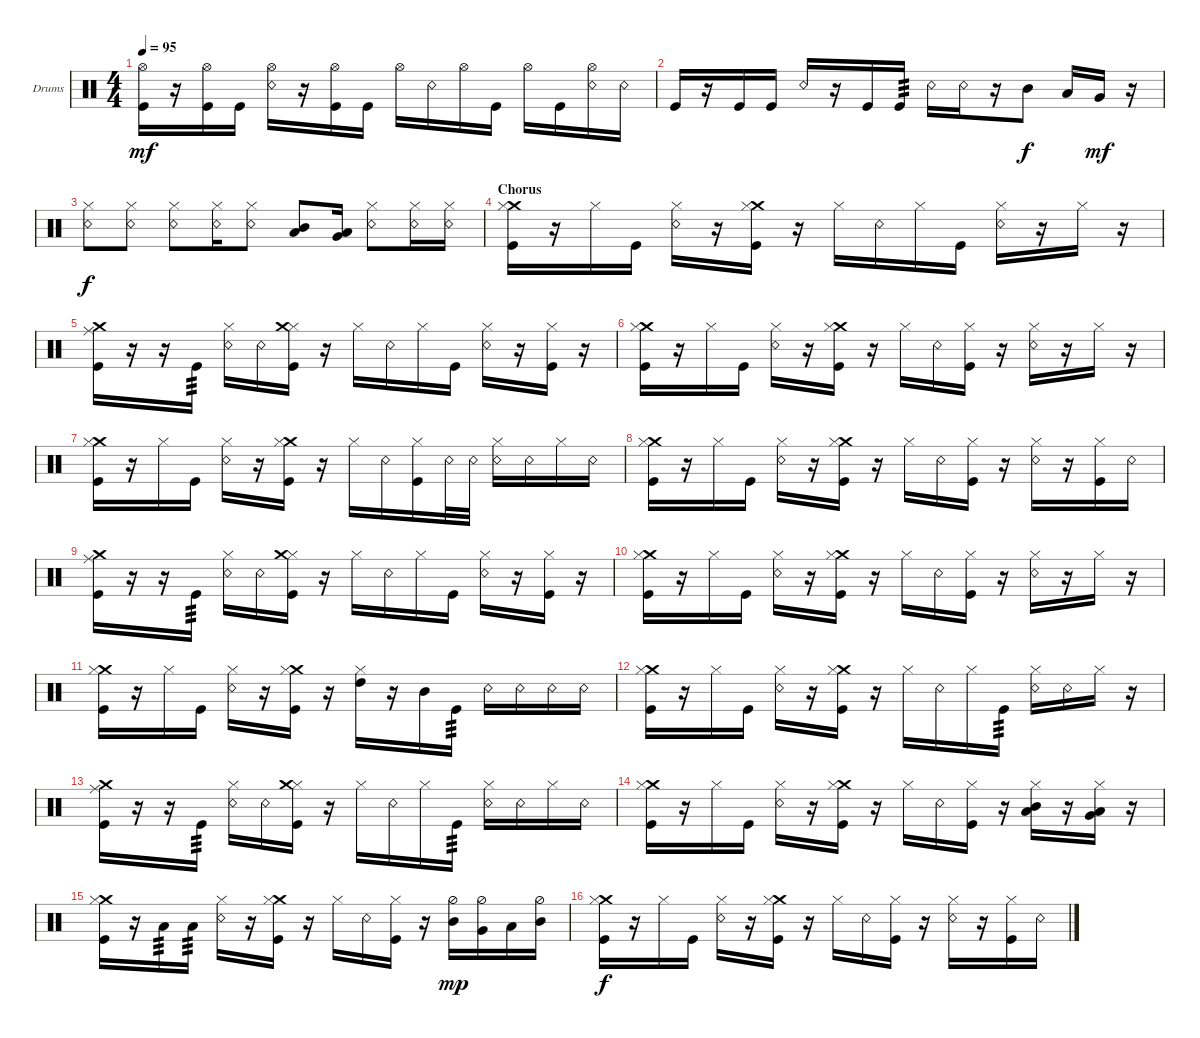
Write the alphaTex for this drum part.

\defaultSystemsLayout 4
\bracketExtendMode groupsimilarinstruments
\firstSystemTrackNameOrientation horizontal
\otherSystemsTrackNameOrientation horizontal
\track ("Drum [Tomoya]" "Drums") {instrument percussion}
\staff {score}
\articulation defaults
\ts (4 4)
\tempo 95
\clef neutral
\ks c
("Kick (hit)" "Hi-Hat (open)").16{dy mf} r.16 ("Kick (hit)" "Hi-Hat (open)").16 "Kick (hit)".16 ("Snare (rim shot)" "Hi-Hat (open)").16 r.16 ("Kick (hit)" "Hi-Hat (open)").16 "Kick (hit)".16 "Hi-Hat (open)".16 "Snare (rim shot)".16 "Hi-Hat (open)".16 "Kick (hit)".16 "Hi-Hat (open)".16 "Kick (hit)".16 ("Snare (rim shot)" "Hi-Hat (open)").16 "Snare (rim shot)".16 |
"Kick (hit)".16 r.16 "Kick (hit)".16 "Kick (hit)".16 "Snare (rim shot)".16 r.16 "Kick (hit)".16 "Kick (hit)".16{tp 3} "Snare (rim shot)".16 "Snare (rim shot)".16 r.16 "Mid Tom (hit)".8{dy f} "Low Tom (hit)".16 "Very Low Tom (hit)".16{dy mf} r.16 |
("Snare (rim shot)" "Hi-Hat (closed)").8{dy f} ("Snare (rim shot)" "Hi-Hat (closed)").8 ("Snare (rim shot)" "Hi-Hat (closed)").8 ("Snare (rim shot)" "Hi-Hat (closed)").16 ("Snare (rim shot)" "Hi-Hat (closed)").8 ("Mid Tom (hit)" "Low Tom (hit)").8 ("Very Low Tom (hit)" "Low Tom (hit)").16 ("Snare (rim shot)" "Hi-Hat (closed)").8 ("Snare (rim shot)" "Hi-Hat (closed)").16 ("Snare (rim shot)" "Hi-Hat (closed)").16 |
\section ("" "Chorus")
("Kick (hit)" "Crash medium (hit)" "Hi-Hat (closed)").16 r.16 "Hi-Hat (closed)".16 "Kick (hit)".16 ("Snare (rim shot)" "Hi-Hat (closed)").16 r.16 ("Kick (hit)" "Crash medium (hit)" "Hi-Hat (closed)").16 r.16 "Hi-Hat (closed)".16 "Snare (rim shot)".16 "Hi-Hat (closed)".16 "Kick (hit)".16 ("Snare (rim shot)" "Hi-Hat (closed)").16 r.16 "Hi-Hat (closed)".16 r.16 |
("Kick (hit)" "Crash medium (hit)" "Ride (middle)").16 r.16 r.16 "Kick (hit)".16{tp 3} ("Snare (rim shot)" "Hi-Hat (closed)").16 "Snare (rim shot)".16 ("Kick (hit)" "Hi-Hat (closed)" "Crash medium (hit)").16 r.16 "Hi-Hat (closed)".16 "Snare (rim shot)".16 "Hi-Hat (closed)".16 "Kick (hit)".16 ("Snare (rim shot)" "Hi-Hat (closed)").16 r.16 ("Kick (hit)" "Hi-Hat (closed)").16 r.16 |
("Kick (hit)" "Crash medium (hit)" "Hi-Hat (closed)").16 r.16 "Hi-Hat (closed)".16 "Kick (hit)".16 ("Snare (rim shot)" "Hi-Hat (closed)").16 r.16 ("Kick (hit)" "Crash medium (hit)" "Hi-Hat (closed)").16 r.16 "Hi-Hat (closed)".16 "Snare (rim shot)".16 ("Hi-Hat (closed)" "Kick (hit)").16 r.16 ("Snare (rim shot)" "Hi-Hat (closed)").16 r.16 "Hi-Hat (closed)".16 r.16 |
("Kick (hit)" "Crash medium (hit)" "Hi-Hat (closed)").16 r.16 "Hi-Hat (closed)".16 "Kick (hit)".16 ("Snare (rim shot)" "Hi-Hat (closed)").16 r.16 ("Kick (hit)" "Crash medium (hit)" "Hi-Hat (closed)").16 r.16 "Hi-Hat (closed)".16 "Snare (rim shot)".16 ("Hi-Hat (closed)" "Kick (hit)").16 "Snare (rim shot)".32 "Snare (rim shot)".32 ("Snare (rim shot)" "Hi-Hat (closed)").16 "Snare (rim shot)".16 "Hi-Hat (closed)".16 "Snare (rim shot)".16 |
("Kick (hit)" "Crash medium (hit)" "Hi-Hat (closed)").16 r.16 "Hi-Hat (closed)".16 "Kick (hit)".16 ("Snare (rim shot)" "Hi-Hat (closed)").16 r.16 ("Kick (hit)" "Crash medium (hit)" "Hi-Hat (closed)").16 r.16 "Hi-Hat (closed)".16 "Snare (rim shot)".16 ("Hi-Hat (closed)" "Kick (hit)").16 r.16 ("Snare (rim shot)" "Hi-Hat (closed)").16 r.16 ("Hi-Hat (closed)" "Kick (hit)").16 "Snare (rim shot)".16 |
("Kick (hit)" "Crash medium (hit)" "Ride (middle)").16 r.16 r.16 "Kick (hit)".16{tp 3} ("Snare (rim shot)" "Hi-Hat (closed)").16 "Snare (rim shot)".16 ("Kick (hit)" "Hi-Hat (closed)" "Crash medium (hit)").16 r.16 "Hi-Hat (closed)".16 "Snare (rim shot)".16 "Hi-Hat (closed)".16 "Kick (hit)".16 ("Snare (rim shot)" "Hi-Hat (closed)").16 r.16 ("Kick (hit)" "Hi-Hat (closed)").16 r.16 |
("Kick (hit)" "Crash medium (hit)" "Hi-Hat (closed)").16 r.16 "Hi-Hat (closed)".16 "Kick (hit)".16 ("Snare (rim shot)" "Hi-Hat (closed)").16 r.16 ("Kick (hit)" "Crash medium (hit)" "Hi-Hat (closed)").16 r.16 "Hi-Hat (closed)".16 "Snare (rim shot)".16 ("Hi-Hat (closed)" "Kick (hit)").16 r.16 ("Snare (rim shot)" "Hi-Hat (closed)").16 r.16 "Hi-Hat (closed)".16 r.16 |
("Kick (hit)" "Crash medium (hit)" "Hi-Hat (closed)").16 r.16 "Hi-Hat (closed)".16 "Kick (hit)".16 ("Snare (rim shot)" "Hi-Hat (closed)").16 r.16 ("Kick (hit)" "Crash medium (hit)" "Hi-Hat (closed)").16 r.16 ("Hi-Hat (closed)" "High Tom (hit)").16 r.16 "Mid Tom (hit)".16 "Kick (hit)".16{tp 3} "Snare (rim shot)".16 "Snare (rim shot)".16 "Snare (rim shot)".16 "Snare (rim shot)".16 |
("Kick (hit)" "Crash medium (hit)" "Hi-Hat (closed)").16 r.16 "Hi-Hat (closed)".16 "Kick (hit)".16 ("Snare (rim shot)" "Hi-Hat (closed)").16 r.16 ("Kick (hit)" "Crash medium (hit)" "Hi-Hat (closed)").16 r.16 "Hi-Hat (closed)".16 "Snare (rim shot)".16 "Hi-Hat (closed)".16 "Kick (hit)".16{tp 3} ("Snare (rim shot)" "Hi-Hat (closed)").16 "Snare (rim shot)".16 "Hi-Hat (closed)".16 r.16 |
("Kick (hit)" "Crash medium (hit)" "Ride (middle)").16 r.16 r.16 "Kick (hit)".16{tp 3} ("Snare (rim shot)" "Hi-Hat (closed)").16 "Snare (rim shot)".16 ("Kick (hit)" "Hi-Hat (closed)" "Crash medium (hit)").16 r.16 "Hi-Hat (closed)".16 "Snare (rim shot)".16 "Hi-Hat (closed)".16 "Kick (hit)".16{tp 3} ("Snare (rim shot)" "Hi-Hat (closed)").16 "Snare (rim shot)".16 "Hi-Hat (closed)".16 "Snare (rim shot)".16 |
("Kick (hit)" "Crash medium (hit)" "Hi-Hat (closed)").16 r.16 "Hi-Hat (closed)".16 "Kick (hit)".16 ("Snare (rim shot)" "Hi-Hat (closed)").16 r.16 ("Kick (hit)" "Crash medium (hit)" "Hi-Hat (closed)").16 r.16 "Hi-Hat (closed)".16 "Snare (rim shot)".16 ("Hi-Hat (closed)" "Kick (hit)").16 r.16 ("Hi-Hat (closed)" "Mid Tom (hit)" "Low Tom (hit)").16 r.16 ("Hi-Hat (closed)" "Very Low Tom (hit)" "Low Tom (hit)").16 r.16 |
("Kick (hit)" "Crash medium (hit)" "Hi-Hat (closed)").16 r.16 "Low Tom (hit)".16{tp 3} "Low Tom (hit)".16{tp 3} ("Snare (rim shot)" "Hi-Hat (closed)").16 r.16 ("Kick (hit)" "Crash medium (hit)" "Hi-Hat (closed)").16 r.16 "Hi-Hat (closed)".16 "Snare (rim shot)".16 ("Hi-Hat (closed)" "Kick (hit)").16 r.16 ("Mid Tom (hit)" "Hi-Hat (half)").16{dy mp} ("Very Low Tom (hit)" "Hi-Hat (half)").16 "Low Tom (hit)".16 ("Mid Tom (hit)" "Hi-Hat (half)").16 |
("Kick (hit)" "Crash medium (hit)" "Hi-Hat (closed)").16{dy f} r.16 "Hi-Hat (closed)".16 "Kick (hit)".16 ("Snare (rim shot)" "Hi-Hat (closed)").16 r.16 ("Kick (hit)" "Crash medium (hit)" "Hi-Hat (closed)").16 r.16 "Hi-Hat (closed)".16 "Snare (rim shot)".16 ("Hi-Hat (closed)" "Kick (hit)").16 r.16 ("Snare (rim shot)" "Hi-Hat (closed)").16 r.16 ("Hi-Hat (closed)" "Kick (hit)").16 "Snare (rim shot)".16
